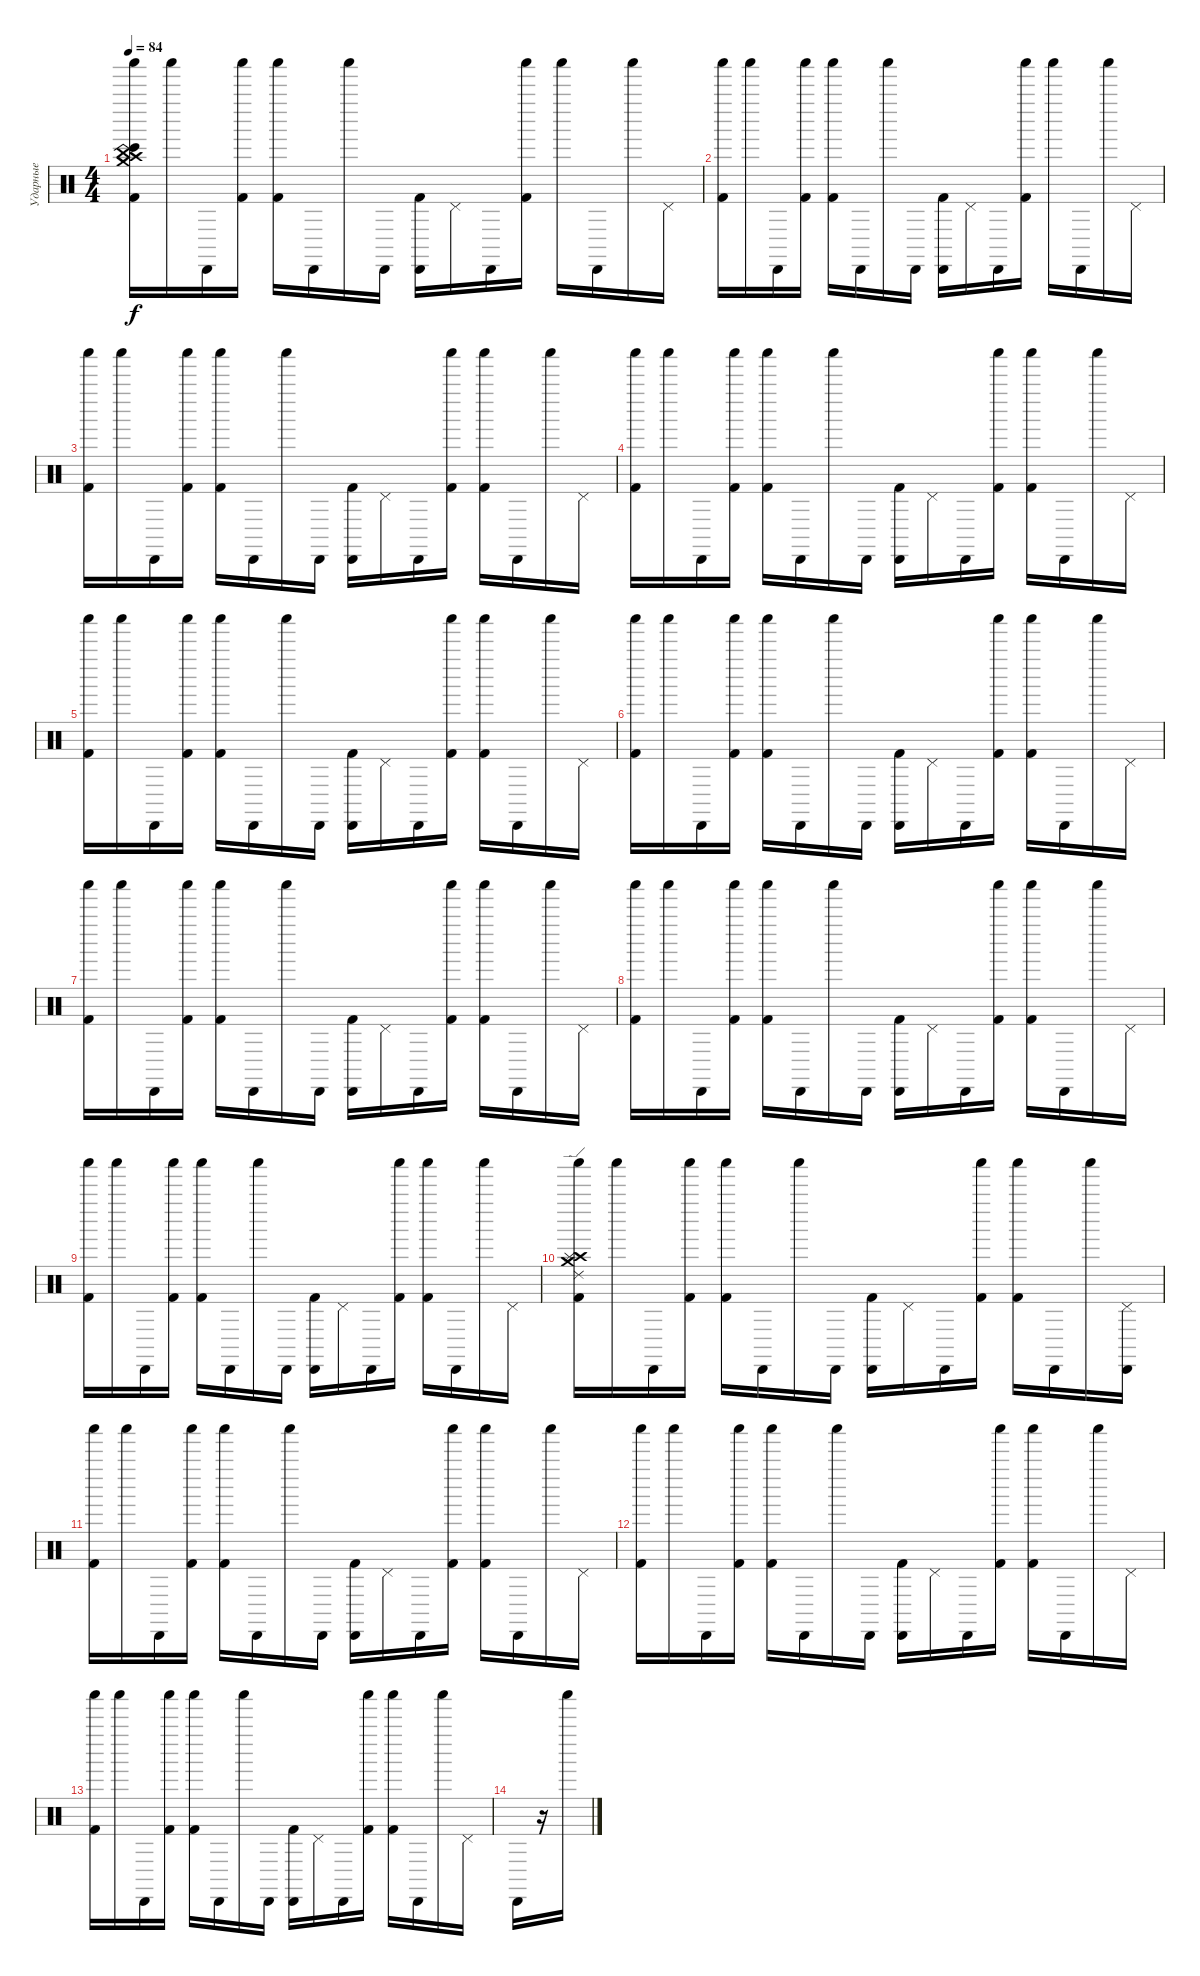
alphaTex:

\track ("Ударные" "Ударные") {instrument percussion}
\staff {score}
\articulation defaults
\ts (4 4)
\tempo 84
\clef neutral
\ks c
("Shaker (hit)" "Crash high (hit)" "China (hit)" "Kick (hit) 2" "Crash medium (hit)" "Bongo High (hit)").16{dy f} "Shaker (hit)".16 "Cabasa (hit)".16 ("Shaker (hit)" "Kick (hit) 2").16 ("Shaker (hit)" "Kick (hit) 2").16 "Cabasa (hit)".16 "Shaker (hit)".16 "Cabasa (hit)".16 ("Cabasa (hit)" "Kick (hit) 2").16 "Pedal Hi-Hat (hit)".16 "Cabasa (hit)".16 ("Shaker (hit)" "Kick (hit) 2").16 "Shaker (hit)".16 "Cabasa (hit)".16 "Shaker (hit)".16 "Pedal Hi-Hat (hit)".16 |
("Shaker (hit)" "Kick (hit) 2").16 "Shaker (hit)".16 "Cabasa (hit)".16 ("Shaker (hit)" "Kick (hit) 2").16 ("Shaker (hit)" "Kick (hit) 2").16 "Cabasa (hit)".16 "Shaker (hit)".16 "Cabasa (hit)".16 ("Cabasa (hit)" "Kick (hit) 2").16 "Pedal Hi-Hat (hit)".16 "Cabasa (hit)".16 ("Shaker (hit)" "Kick (hit) 2").16 "Shaker (hit)".16 "Cabasa (hit)".16 "Shaker (hit)".16 "Pedal Hi-Hat (hit)".16 |
("Shaker (hit)" "Kick (hit) 2").16 "Shaker (hit)".16 "Cabasa (hit)".16 ("Shaker (hit)" "Kick (hit) 2").16 ("Shaker (hit)" "Kick (hit) 2").16 "Cabasa (hit)".16 "Shaker (hit)".16 "Cabasa (hit)".16 ("Cabasa (hit)" "Kick (hit) 2").16 "Pedal Hi-Hat (hit)".16 "Cabasa (hit)".16 ("Shaker (hit)" "Kick (hit) 2").16 ("Shaker (hit)" "Kick (hit) 2").16 "Cabasa (hit)".16 "Shaker (hit)".16 "Pedal Hi-Hat (hit)".16 |
("Shaker (hit)" "Kick (hit) 2").16 "Shaker (hit)".16 "Cabasa (hit)".16 ("Shaker (hit)" "Kick (hit) 2").16 ("Shaker (hit)" "Kick (hit) 2").16 "Cabasa (hit)".16 "Shaker (hit)".16 "Cabasa (hit)".16 ("Cabasa (hit)" "Kick (hit) 2").16 "Pedal Hi-Hat (hit)".16 "Cabasa (hit)".16 ("Shaker (hit)" "Kick (hit) 2").16 ("Shaker (hit)" "Kick (hit) 2").16 "Cabasa (hit)".16 "Shaker (hit)".16 "Pedal Hi-Hat (hit)".16 |
("Shaker (hit)" "Kick (hit) 2").16 "Shaker (hit)".16 "Cabasa (hit)".16 ("Shaker (hit)" "Kick (hit) 2").16 ("Shaker (hit)" "Kick (hit) 2").16 "Cabasa (hit)".16 "Shaker (hit)".16 "Cabasa (hit)".16 ("Cabasa (hit)" "Kick (hit) 2").16 "Pedal Hi-Hat (hit)".16 "Cabasa (hit)".16 ("Shaker (hit)" "Kick (hit) 2").16 ("Shaker (hit)" "Kick (hit) 2").16 "Cabasa (hit)".16 "Shaker (hit)".16 "Pedal Hi-Hat (hit)".16 |
("Shaker (hit)" "Kick (hit) 2").16 "Shaker (hit)".16 "Cabasa (hit)".16 ("Shaker (hit)" "Kick (hit) 2").16 ("Shaker (hit)" "Kick (hit) 2").16 "Cabasa (hit)".16 "Shaker (hit)".16 "Cabasa (hit)".16 ("Cabasa (hit)" "Kick (hit) 2").16 "Pedal Hi-Hat (hit)".16 "Cabasa (hit)".16 ("Shaker (hit)" "Kick (hit) 2").16 ("Shaker (hit)" "Kick (hit) 2").16 "Cabasa (hit)".16 "Shaker (hit)".16 "Pedal Hi-Hat (hit)".16 |
("Shaker (hit)" "Kick (hit) 2").16 "Shaker (hit)".16 "Cabasa (hit)".16 ("Shaker (hit)" "Kick (hit) 2").16 ("Shaker (hit)" "Kick (hit) 2").16 "Cabasa (hit)".16 "Shaker (hit)".16 "Cabasa (hit)".16 ("Cabasa (hit)" "Kick (hit) 2").16 "Pedal Hi-Hat (hit)".16 "Cabasa (hit)".16 ("Shaker (hit)" "Kick (hit) 2").16 ("Shaker (hit)" "Kick (hit) 2").16 "Cabasa (hit)".16 "Shaker (hit)".16 "Pedal Hi-Hat (hit)".16 |
("Shaker (hit)" "Kick (hit) 2").16 "Shaker (hit)".16 "Cabasa (hit)".16 ("Shaker (hit)" "Kick (hit) 2").16 ("Shaker (hit)" "Kick (hit) 2").16 "Cabasa (hit)".16 "Shaker (hit)".16 "Cabasa (hit)".16 ("Cabasa (hit)" "Kick (hit) 2").16 "Pedal Hi-Hat (hit)".16 "Cabasa (hit)".16 ("Shaker (hit)" "Kick (hit) 2").16 ("Shaker (hit)" "Kick (hit) 2").16 "Cabasa (hit)".16 "Shaker (hit)".16 "Pedal Hi-Hat (hit)".16 |
("Shaker (hit)" "Kick (hit) 2").16 "Shaker (hit)".16 "Cabasa (hit)".16 ("Shaker (hit)" "Kick (hit) 2").16 ("Shaker (hit)" "Kick (hit) 2").16 "Cabasa (hit)".16 "Shaker (hit)".16 "Cabasa (hit)".16 ("Cabasa (hit)" "Kick (hit) 2").16 "Pedal Hi-Hat (hit)".16 "Cabasa (hit)".16 ("Shaker (hit)" "Kick (hit) 2").16 ("Shaker (hit)" "Kick (hit) 2").16 "Cabasa (hit)".16 "Shaker (hit)".16 "Pedal Hi-Hat (hit)".16 |
("Shaker (hit)" "Crash high (hit)" "Crash medium (hit)" "Splash (hit)" "Kick (hit) 2" "Ride (edge) 2").16 "Shaker (hit)".16 "Cabasa (hit)".16 ("Shaker (hit)" "Kick (hit) 2").16 ("Shaker (hit)" "Kick (hit) 2").16 "Cabasa (hit)".16 "Shaker (hit)".16 "Cabasa (hit)".16 ("Cabasa (hit)" "Kick (hit) 2").16 "Pedal Hi-Hat (hit)".16 "Cabasa (hit)".16 ("Shaker (hit)" "Kick (hit) 2").16 ("Shaker (hit)" "Kick (hit) 2").16 "Cabasa (hit)".16 "Shaker (hit)".16 ("Pedal Hi-Hat (hit)" "Cabasa (hit)").16 |
("Shaker (hit)" "Kick (hit) 2").16 "Shaker (hit)".16 "Cabasa (hit)".16 ("Shaker (hit)" "Kick (hit) 2").16 ("Shaker (hit)" "Kick (hit) 2").16 "Cabasa (hit)".16 "Shaker (hit)".16 "Cabasa (hit)".16 ("Cabasa (hit)" "Kick (hit) 2").16 "Pedal Hi-Hat (hit)".16 "Cabasa (hit)".16 ("Shaker (hit)" "Kick (hit) 2").16 ("Shaker (hit)" "Kick (hit) 2").16 "Cabasa (hit)".16 "Shaker (hit)".16 "Pedal Hi-Hat (hit)".16 |
("Shaker (hit)" "Kick (hit) 2").16 "Shaker (hit)".16 "Cabasa (hit)".16 ("Shaker (hit)" "Kick (hit) 2").16 ("Shaker (hit)" "Kick (hit) 2").16 "Cabasa (hit)".16 "Shaker (hit)".16 "Cabasa (hit)".16 ("Cabasa (hit)" "Kick (hit) 2").16 "Pedal Hi-Hat (hit)".16 "Cabasa (hit)".16 ("Shaker (hit)" "Kick (hit) 2").16 ("Shaker (hit)" "Kick (hit) 2").16 "Cabasa (hit)".16 "Shaker (hit)".16 "Pedal Hi-Hat (hit)".16 |
("Shaker (hit)" "Kick (hit) 2").16 "Shaker (hit)".16 "Cabasa (hit)".16 ("Shaker (hit)" "Kick (hit) 2").16 ("Shaker (hit)" "Kick (hit) 2").16 "Cabasa (hit)".16 "Shaker (hit)".16 "Cabasa (hit)".16 ("Cabasa (hit)" "Kick (hit) 2").16 "Pedal Hi-Hat (hit)".16 "Cabasa (hit)".16 ("Shaker (hit)" "Kick (hit) 2").16 ("Shaker (hit)" "Kick (hit) 2").16 "Cabasa (hit)".16 "Shaker (hit)".16 "Pedal Hi-Hat (hit)".16 |
"Cabasa (hit)".16 r.16 "Shaker (hit)".16
